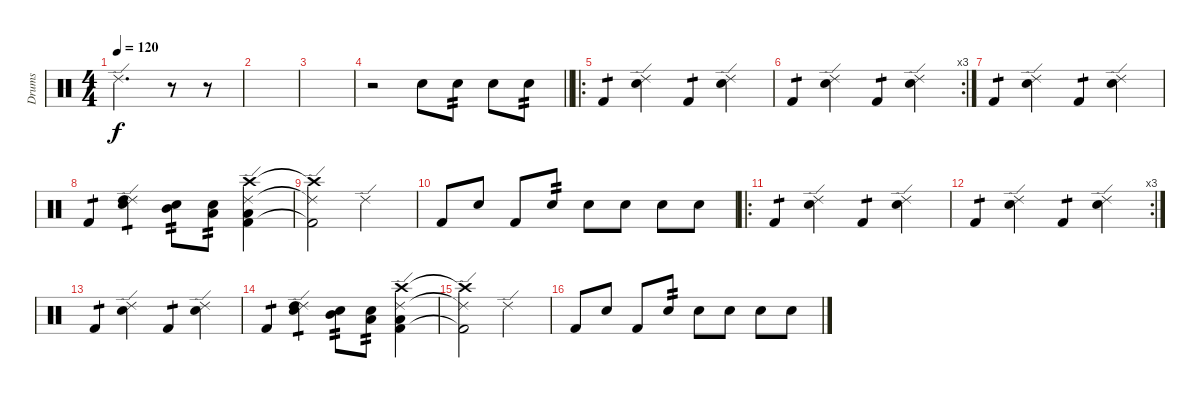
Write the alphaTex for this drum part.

\track ("Drums" "Drums") {instrument percussion}
\staff {score}
\articulation defaults
\ts (4 4)
\tempo 120
\clef neutral
\ks c "Ride (edge) 2".2{d dy f}
r.8 r.8 |
|
|
\barLineRight lightlight
r.2 "Snare (hit) 2".8 "Snare (hit) 2".8{tp 2} "Snare (hit) 2".8 "Snare (hit) 2".8{tp 2} |
\ro "Kick (hit) 2".4{tp 1}
("Ride (edge) 2" "Snare (hit) 2").4 "Kick (hit) 2".4{tp 1} ("Ride (edge) 2" "Snare (hit) 2").4 |
\rc 3 "Kick (hit) 2".4{tp 1}
("Ride (edge) 2" "Snare (hit) 2").4 "Kick (hit) 2".4{tp 1} ("Ride (edge) 2" "Snare (hit) 2").4 |
"Kick (hit) 2".4{tp 1} ("Ride (edge) 2" "Snare (hit) 2").4 "Kick (hit) 2".4{tp 1} ("Ride (edge) 2" "Snare (hit) 2").4 |
"Kick (hit) 2".4{tp 1} ("Ride (edge) 2" "Snare (hit) 2" "High Tom (hit)").4{tp 1} ("Snare (hit) 2" "Mid Tom (hit)").8{tp 2} ("Snare (hit) 2" "Low Tom (hit)").8{tp 2} ("Kick (hit) 2" "Ride (edge) 2" "Crash high (hit)" "Low Floor Tom (hit)").4 |
("Kick (hit) 2"{t} "Ride (edge) 2"{t} "Crash high (hit)"{t}).2 "Ride (edge) 2".2 |
"Kick (hit) 2".8 "Snare (hit) 2".8 "Kick (hit) 2".8 "Snare (hit) 2".8{tp 2} "Snare (hit) 2".8 "Snare (hit) 2".8 "Snare (hit) 2".8 "Snare (hit) 2".8 |
\ro "Kick (hit) 2".4{tp 1}
("Ride (edge) 2" "Snare (hit) 2").4 "Kick (hit) 2".4{tp 1} ("Ride (edge) 2" "Snare (hit) 2").4 |
\rc 3 "Kick (hit) 2".4{tp 1}
("Ride (edge) 2" "Snare (hit) 2").4 "Kick (hit) 2".4{tp 1} ("Ride (edge) 2" "Snare (hit) 2").4 |
"Kick (hit) 2".4{tp 1} ("Ride (edge) 2" "Snare (hit) 2").4 "Kick (hit) 2".4{tp 1} ("Ride (edge) 2" "Snare (hit) 2").4 |
"Kick (hit) 2".4{tp 1} ("Ride (edge) 2" "Snare (hit) 2" "High Tom (hit)").4{tp 1} ("Snare (hit) 2" "Mid Tom (hit)").8{tp 2} ("Snare (hit) 2" "Low Tom (hit)").8{tp 2} ("Kick (hit) 2" "Ride (edge) 2" "Crash high (hit)" "Low Floor Tom (hit)").4 |
("Kick (hit) 2"{t} "Ride (edge) 2"{t} "Crash high (hit)"{t}).2 "Ride (edge) 2".2 |
"Kick (hit) 2".8 "Snare (hit) 2".8 "Kick (hit) 2".8 "Snare (hit) 2".8{tp 2} "Snare (hit) 2".8 "Snare (hit) 2".8 "Snare (hit) 2".8 "Snare (hit) 2".8
